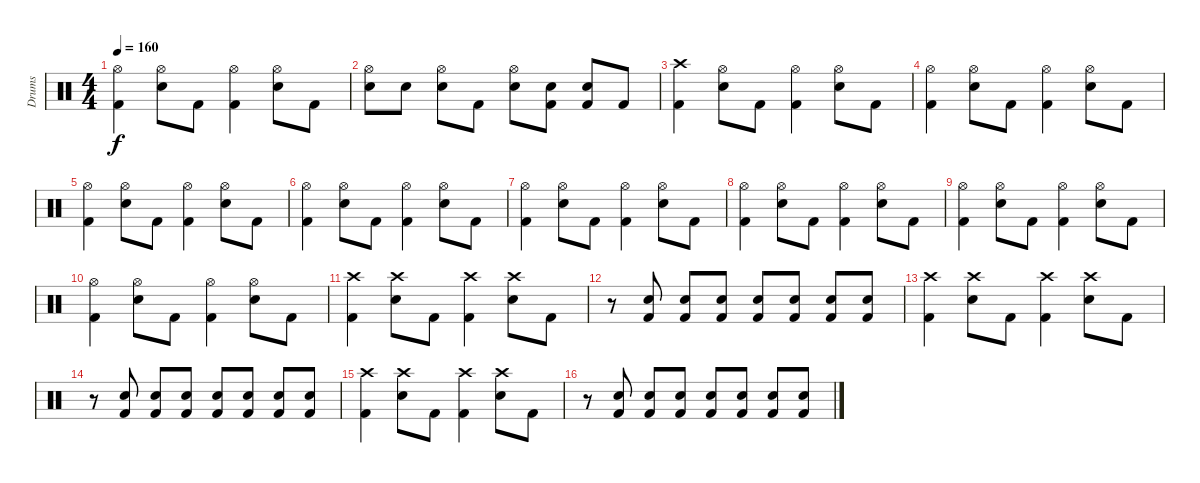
\track ("Drums" "Drums") {instrument percussion}
\staff {score}
\articulation defaults
\ts (4 4)
\tempo 160
\clef neutral
\ks c
("Hi-Hat (open)" "Kick (hit) 2").4{dy f} ("Hi-Hat (open)" "Electric Snare (hit)").8 "Kick (hit) 2".8 ("Hi-Hat (open)" "Kick (hit) 2").4 ("Hi-Hat (open)" "Electric Snare (hit)").8 "Kick (hit) 2".8 |
("Hi-Hat (open)" "Electric Snare (hit)").8 "Electric Snare (hit)".8 ("Hi-Hat (open)" "Electric Snare (hit)").8 "Kick (hit) 2".8 ("Hi-Hat (open)" "Electric Snare (hit)").8 ("Electric Snare (hit)" "Kick (hit) 2").8 ("Electric Snare (hit)" "Kick (hit) 2").8 "Kick (hit) 2".8 |
("Crash high (hit)" "Kick (hit) 2").4 ("Hi-Hat (open)" "Electric Snare (hit)").8 "Kick (hit) 2".8 ("Hi-Hat (open)" "Kick (hit) 2").4 ("Hi-Hat (open)" "Electric Snare (hit)").8 "Kick (hit) 2".8 |
("Hi-Hat (open)" "Kick (hit) 2").4 ("Hi-Hat (open)" "Electric Snare (hit)").8 "Kick (hit) 2".8 ("Hi-Hat (open)" "Kick (hit) 2").4 ("Hi-Hat (open)" "Electric Snare (hit)").8 "Kick (hit) 2".8 |
("Hi-Hat (open)" "Kick (hit) 2").4 ("Hi-Hat (open)" "Electric Snare (hit)").8 "Kick (hit) 2".8 ("Hi-Hat (open)" "Kick (hit) 2").4 ("Hi-Hat (open)" "Electric Snare (hit)").8 "Kick (hit) 2".8 |
("Hi-Hat (open)" "Kick (hit) 2").4 ("Hi-Hat (open)" "Electric Snare (hit)").8 "Kick (hit) 2".8 ("Hi-Hat (open)" "Kick (hit) 2").4 ("Hi-Hat (open)" "Electric Snare (hit)").8 "Kick (hit) 2".8 |
("Hi-Hat (open)" "Kick (hit) 2").4 ("Hi-Hat (open)" "Electric Snare (hit)").8 "Kick (hit) 2".8 ("Hi-Hat (open)" "Kick (hit) 2").4 ("Hi-Hat (open)" "Electric Snare (hit)").8 "Kick (hit) 2".8 |
("Hi-Hat (open)" "Kick (hit) 2").4 ("Hi-Hat (open)" "Electric Snare (hit)").8 "Kick (hit) 2".8 ("Hi-Hat (open)" "Kick (hit) 2").4 ("Hi-Hat (open)" "Electric Snare (hit)").8 "Kick (hit) 2".8 |
("Hi-Hat (open)" "Kick (hit) 2").4 ("Hi-Hat (open)" "Electric Snare (hit)").8 "Kick (hit) 2".8 ("Hi-Hat (open)" "Kick (hit) 2").4 ("Hi-Hat (open)" "Electric Snare (hit)").8 "Kick (hit) 2".8 |
("Hi-Hat (open)" "Kick (hit) 2").4 ("Hi-Hat (open)" "Electric Snare (hit)").8 "Kick (hit) 2".8 ("Hi-Hat (open)" "Kick (hit) 2").4 ("Hi-Hat (open)" "Electric Snare (hit)").8 "Kick (hit) 2".8 |
("Crash high (hit)" "Kick (hit) 2").4 ("Crash high (hit)" "Electric Snare (hit)").8 "Kick (hit) 2".8 ("Crash high (hit)" "Kick (hit) 2").4 ("Crash high (hit)" "Electric Snare (hit)").8 "Kick (hit) 2".8 |
r.8 ("Electric Snare (hit)" "Kick (hit) 2").8 ("Electric Snare (hit)" "Kick (hit) 2").8 ("Electric Snare (hit)" "Kick (hit) 2").8 ("Electric Snare (hit)" "Kick (hit) 2").8 ("Electric Snare (hit)" "Kick (hit) 2").8 ("Electric Snare (hit)" "Kick (hit) 2").8 ("Electric Snare (hit)" "Kick (hit) 2").8 |
("Crash high (hit)" "Kick (hit) 2").4 ("Crash high (hit)" "Electric Snare (hit)").8 "Kick (hit) 2".8 ("Crash high (hit)" "Kick (hit) 2").4 ("Crash high (hit)" "Electric Snare (hit)").8 "Kick (hit) 2".8 |
r.8 ("Electric Snare (hit)" "Kick (hit) 2").8 ("Electric Snare (hit)" "Kick (hit) 2").8 ("Electric Snare (hit)" "Kick (hit) 2").8 ("Electric Snare (hit)" "Kick (hit) 2").8 ("Electric Snare (hit)" "Kick (hit) 2").8 ("Electric Snare (hit)" "Kick (hit) 2").8 ("Electric Snare (hit)" "Kick (hit) 2").8 |
("Crash high (hit)" "Kick (hit) 2").4 ("Crash high (hit)" "Electric Snare (hit)").8 "Kick (hit) 2".8 ("Crash high (hit)" "Kick (hit) 2").4 ("Crash high (hit)" "Electric Snare (hit)").8 "Kick (hit) 2".8 |
r.8 ("Electric Snare (hit)" "Kick (hit) 2").8 ("Electric Snare (hit)" "Kick (hit) 2").8 ("Electric Snare (hit)" "Kick (hit) 2").8 ("Electric Snare (hit)" "Kick (hit) 2").8 ("Electric Snare (hit)" "Kick (hit) 2").8 ("Electric Snare (hit)" "Kick (hit) 2").8 ("Electric Snare (hit)" "Kick (hit) 2").8
